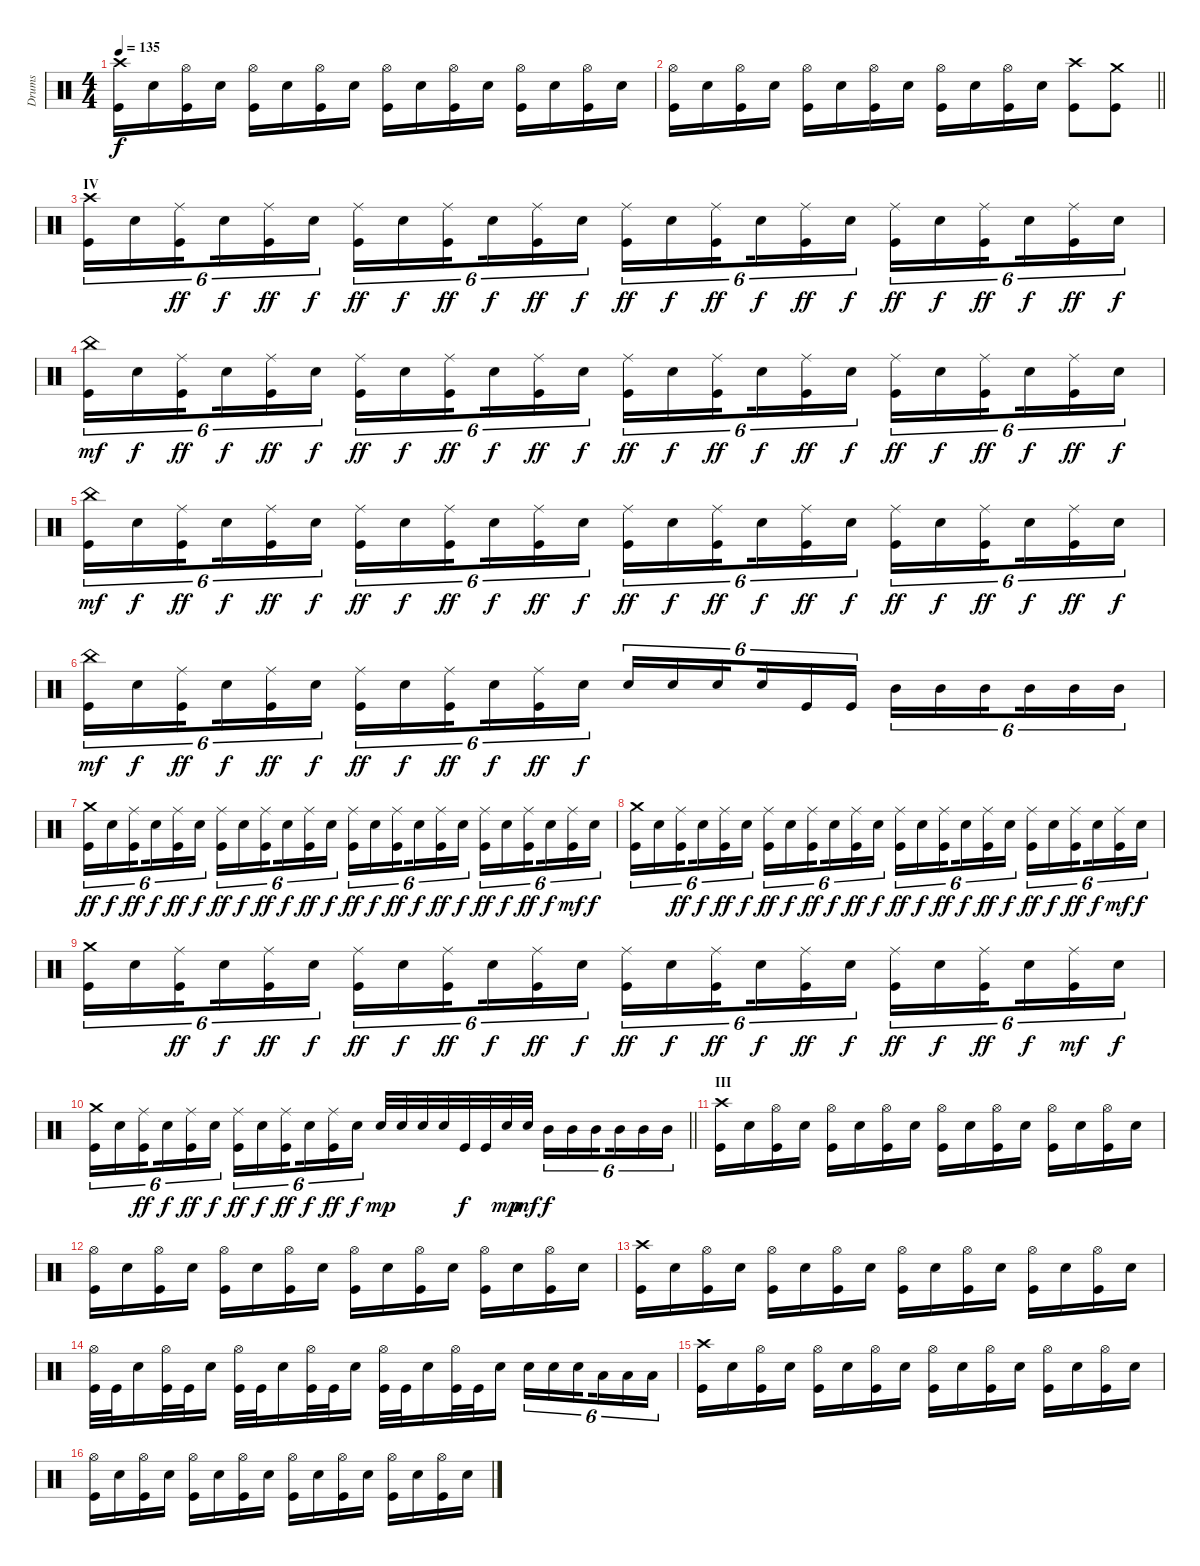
\track ("Drums" "Drums") {instrument percussion}
\staff {score}
\articulation defaults
\ts (4 4)
\tempo 135
\clef neutral
\ks c
("Kick (hit)" "Crash high (hit)").16{dy f} "Electric Snare (hit)".16 ("Kick (hit)" "Hi-Hat (open)").16 "Electric Snare (hit)".16 ("Kick (hit)" "Hi-Hat (open)").16 "Electric Snare (hit)".16 ("Kick (hit)" "Hi-Hat (open)").16 "Electric Snare (hit)".16 ("Kick (hit)" "Hi-Hat (open)").16 "Electric Snare (hit)".16 ("Kick (hit)" "Hi-Hat (open)").16 "Electric Snare (hit)".16 ("Kick (hit)" "Hi-Hat (open)").16 "Electric Snare (hit)".16 ("Kick (hit)" "Hi-Hat (open)").16 "Electric Snare (hit)".16 |
\barLineRight lightlight
("Kick (hit)" "Hi-Hat (open)").16 "Electric Snare (hit)".16 ("Kick (hit)" "Hi-Hat (open)").16 "Electric Snare (hit)".16 ("Kick (hit)" "Hi-Hat (open)").16 "Electric Snare (hit)".16 ("Kick (hit)" "Hi-Hat (open)").16 "Electric Snare (hit)".16 ("Kick (hit)" "Hi-Hat (open)").16 "Electric Snare (hit)".16 ("Kick (hit)" "Hi-Hat (open)").16 "Electric Snare (hit)".16 ("Kick (hit)" "Crash high (hit)").8 ("Kick (hit)" "Crash medium (hit)").8 |
\section ("" "IV")
("Kick (hit)" "Crash high (hit)").16{tu (6 4)} "Electric Snare (hit)".16{tu (6 4)} ("Kick (hit)" "Ride (middle)").16{tu (6 4) dy ff beam splitsecondary} "Electric Snare (hit)".16{tu (6 4) dy f} ("Kick (hit)" "Ride (middle)").16{tu (6 4) dy ff} "Electric Snare (hit)".16{tu (6 4) dy f} ("Kick (hit)" "Ride (middle)").16{tu (6 4) dy ff} "Electric Snare (hit)".16{tu (6 4) dy f} ("Kick (hit)" "Ride (middle)").16{tu (6 4) dy ff beam splitsecondary} "Electric Snare (hit)".16{tu (6 4) dy f} ("Kick (hit)" "Ride (middle)").16{tu (6 4) dy ff} "Electric Snare (hit)".16{tu (6 4) dy f} ("Kick (hit)" "Ride (middle)").16{tu (6 4) dy ff} "Electric Snare (hit)".16{tu (6 4) dy f} ("Kick (hit)" "Ride (middle)").16{tu (6 4) dy ff beam splitsecondary} "Electric Snare (hit)".16{tu (6 4) dy f} ("Kick (hit)" "Ride (middle)").16{tu (6 4) dy ff} "Electric Snare (hit)".16{tu (6 4) dy f} ("Kick (hit)" "Ride (middle)").16{tu (6 4) dy ff} "Electric Snare (hit)".16{tu (6 4) dy f} ("Kick (hit)" "Ride (middle)").16{tu (6 4) dy ff beam splitsecondary} "Electric Snare (hit)".16{tu (6 4) dy f} ("Kick (hit)" "Ride (middle)").16{tu (6 4) dy ff} "Electric Snare (hit)".16{tu (6 4) dy f} |
("Kick (hit)" "China (hit)").16{tu (6 4) dy mf} "Electric Snare (hit)".16{tu (6 4) dy f} ("Kick (hit)" "Ride (middle)").16{tu (6 4) dy ff beam splitsecondary} "Electric Snare (hit)".16{tu (6 4) dy f} ("Kick (hit)" "Ride (middle)").16{tu (6 4) dy ff} "Electric Snare (hit)".16{tu (6 4) dy f} ("Kick (hit)" "Ride (middle)").16{tu (6 4) dy ff} "Electric Snare (hit)".16{tu (6 4) dy f} ("Kick (hit)" "Ride (middle)").16{tu (6 4) dy ff beam splitsecondary} "Electric Snare (hit)".16{tu (6 4) dy f} ("Kick (hit)" "Ride (middle)").16{tu (6 4) dy ff} "Electric Snare (hit)".16{tu (6 4) dy f} ("Kick (hit)" "Ride (middle)").16{tu (6 4) dy ff} "Electric Snare (hit)".16{tu (6 4) dy f} ("Kick (hit)" "Ride (middle)").16{tu (6 4) dy ff beam splitsecondary} "Electric Snare (hit)".16{tu (6 4) dy f} ("Kick (hit)" "Ride (middle)").16{tu (6 4) dy ff} "Electric Snare (hit)".16{tu (6 4) dy f} ("Kick (hit)" "Ride (middle)").16{tu (6 4) dy ff} "Electric Snare (hit)".16{tu (6 4) dy f} ("Kick (hit)" "Ride (middle)").16{tu (6 4) dy ff beam splitsecondary} "Electric Snare (hit)".16{tu (6 4) dy f} ("Kick (hit)" "Ride (middle)").16{tu (6 4) dy ff} "Electric Snare (hit)".16{tu (6 4) dy f} |
("Kick (hit)" "China (hit)").16{tu (6 4) dy mf} "Electric Snare (hit)".16{tu (6 4) dy f} ("Kick (hit)" "Ride (middle)").16{tu (6 4) dy ff beam splitsecondary} "Electric Snare (hit)".16{tu (6 4) dy f} ("Kick (hit)" "Ride (middle)").16{tu (6 4) dy ff} "Electric Snare (hit)".16{tu (6 4) dy f} ("Kick (hit)" "Ride (middle)").16{tu (6 4) dy ff} "Electric Snare (hit)".16{tu (6 4) dy f} ("Kick (hit)" "Ride (middle)").16{tu (6 4) dy ff beam splitsecondary} "Electric Snare (hit)".16{tu (6 4) dy f} ("Kick (hit)" "Ride (middle)").16{tu (6 4) dy ff} "Electric Snare (hit)".16{tu (6 4) dy f} ("Kick (hit)" "Ride (middle)").16{tu (6 4) dy ff} "Electric Snare (hit)".16{tu (6 4) dy f} ("Kick (hit)" "Ride (middle)").16{tu (6 4) dy ff beam splitsecondary} "Electric Snare (hit)".16{tu (6 4) dy f} ("Kick (hit)" "Ride (middle)").16{tu (6 4) dy ff} "Electric Snare (hit)".16{tu (6 4) dy f} ("Kick (hit)" "Ride (middle)").16{tu (6 4) dy ff} "Electric Snare (hit)".16{tu (6 4) dy f} ("Kick (hit)" "Ride (middle)").16{tu (6 4) dy ff beam splitsecondary} "Electric Snare (hit)".16{tu (6 4) dy f} ("Kick (hit)" "Ride (middle)").16{tu (6 4) dy ff} "Electric Snare (hit)".16{tu (6 4) dy f} |
("Kick (hit)" "China (hit)").16{tu (6 4) dy mf} "Electric Snare (hit)".16{tu (6 4) dy f} ("Kick (hit)" "Ride (middle)").16{tu (6 4) dy ff beam splitsecondary} "Electric Snare (hit)".16{tu (6 4) dy f} ("Kick (hit)" "Ride (middle)").16{tu (6 4) dy ff} "Electric Snare (hit)".16{tu (6 4) dy f} ("Kick (hit)" "Ride (middle)").16{tu (6 4) dy ff} "Electric Snare (hit)".16{tu (6 4) dy f} ("Kick (hit)" "Ride (middle)").16{tu (6 4) dy ff beam splitsecondary} "Electric Snare (hit)".16{tu (6 4) dy f} ("Kick (hit)" "Ride (middle)").16{tu (6 4) dy ff} "Electric Snare (hit)".16{tu (6 4) dy f} "Electric Snare (hit)".16{tu (6 4)} "Electric Snare (hit)".16{tu (6 4)} "Electric Snare (hit)".16{tu (6 4) beam splitsecondary} "Electric Snare (hit)".16{tu (6 4)} "Kick (hit)".16{tu (6 4)} "Kick (hit)".16{tu (6 4)} "Mid Tom (hit)".16{tu (6 4)} "Mid Tom (hit)".16{tu (6 4)} "Mid Tom (hit)".16{tu (6 4) beam splitsecondary} "Mid Tom (hit)".16{tu (6 4)} "Mid Tom (hit)".16{tu (6 4)} "Mid Tom (hit)".16{tu (6 4)} |
("Kick (hit)" "Crash medium (hit)").16{tu (6 4) dy ff} "Electric Snare (hit)".16{tu (6 4) dy f} ("Kick (hit)" "Ride (middle)").16{tu (6 4) dy ff beam splitsecondary} "Electric Snare (hit)".16{tu (6 4) dy f} ("Kick (hit)" "Ride (middle)").16{tu (6 4) dy ff} "Electric Snare (hit)".16{tu (6 4) dy f} ("Kick (hit)" "Ride (middle)").16{tu (6 4) dy ff} "Electric Snare (hit)".16{tu (6 4) dy f} ("Kick (hit)" "Ride (middle)").16{tu (6 4) dy ff beam splitsecondary} "Electric Snare (hit)".16{tu (6 4) dy f} ("Kick (hit)" "Ride (middle)").16{tu (6 4) dy ff} "Electric Snare (hit)".16{tu (6 4) dy f} ("Kick (hit)" "Ride (middle)").16{tu (6 4) dy ff} "Electric Snare (hit)".16{tu (6 4) dy f} ("Kick (hit)" "Ride (middle)").16{tu (6 4) dy ff beam splitsecondary} "Electric Snare (hit)".16{tu (6 4) dy f} ("Kick (hit)" "Ride (middle)").16{tu (6 4) dy ff} "Electric Snare (hit)".16{tu (6 4) dy f} ("Kick (hit)" "Ride (middle)").16{tu (6 4) dy ff} "Electric Snare (hit)".16{tu (6 4) dy f} ("Kick (hit)" "Ride (middle)").16{tu (6 4) dy ff beam splitsecondary} "Electric Snare (hit)".16{tu (6 4) dy f} ("Kick (hit)" "Ride (middle)").16{tu (6 4) dy mf} "Electric Snare (hit)".16{tu (6 4) dy f} |
("Kick (hit)" "Crash medium (hit)").16{tu (6 4)} "Electric Snare (hit)".16{tu (6 4)} ("Kick (hit)" "Ride (middle)").16{tu (6 4) dy ff beam splitsecondary} "Electric Snare (hit)".16{tu (6 4) dy f} ("Kick (hit)" "Ride (middle)").16{tu (6 4) dy ff} "Electric Snare (hit)".16{tu (6 4) dy f} ("Kick (hit)" "Ride (middle)").16{tu (6 4) dy ff} "Electric Snare (hit)".16{tu (6 4) dy f} ("Kick (hit)" "Ride (middle)").16{tu (6 4) dy ff beam splitsecondary} "Electric Snare (hit)".16{tu (6 4) dy f} ("Kick (hit)" "Ride (middle)").16{tu (6 4) dy ff} "Electric Snare (hit)".16{tu (6 4) dy f} ("Kick (hit)" "Ride (middle)").16{tu (6 4) dy ff} "Electric Snare (hit)".16{tu (6 4) dy f} ("Kick (hit)" "Ride (middle)").16{tu (6 4) dy ff beam splitsecondary} "Electric Snare (hit)".16{tu (6 4) dy f} ("Kick (hit)" "Ride (middle)").16{tu (6 4) dy ff} "Electric Snare (hit)".16{tu (6 4) dy f} ("Kick (hit)" "Ride (middle)").16{tu (6 4) dy ff} "Electric Snare (hit)".16{tu (6 4) dy f} ("Kick (hit)" "Ride (middle)").16{tu (6 4) dy ff beam splitsecondary} "Electric Snare (hit)".16{tu (6 4) dy f} ("Kick (hit)" "Ride (middle)").16{tu (6 4) dy mf} "Electric Snare (hit)".16{tu (6 4) dy f} |
("Kick (hit)" "Crash medium (hit)").16{tu (6 4)} "Electric Snare (hit)".16{tu (6 4)} ("Kick (hit)" "Ride (middle)").16{tu (6 4) dy ff beam splitsecondary} "Electric Snare (hit)".16{tu (6 4) dy f} ("Kick (hit)" "Ride (middle)").16{tu (6 4) dy ff} "Electric Snare (hit)".16{tu (6 4) dy f} ("Kick (hit)" "Ride (middle)").16{tu (6 4) dy ff} "Electric Snare (hit)".16{tu (6 4) dy f} ("Kick (hit)" "Ride (middle)").16{tu (6 4) dy ff beam splitsecondary} "Electric Snare (hit)".16{tu (6 4) dy f} ("Kick (hit)" "Ride (middle)").16{tu (6 4) dy ff} "Electric Snare (hit)".16{tu (6 4) dy f} ("Kick (hit)" "Ride (middle)").16{tu (6 4) dy ff} "Electric Snare (hit)".16{tu (6 4) dy f} ("Kick (hit)" "Ride (middle)").16{tu (6 4) dy ff beam splitsecondary} "Electric Snare (hit)".16{tu (6 4) dy f} ("Kick (hit)" "Ride (middle)").16{tu (6 4) dy ff} "Electric Snare (hit)".16{tu (6 4) dy f} ("Kick (hit)" "Ride (middle)").16{tu (6 4) dy ff} "Electric Snare (hit)".16{tu (6 4) dy f} ("Kick (hit)" "Ride (middle)").16{tu (6 4) dy ff beam splitsecondary} "Electric Snare (hit)".16{tu (6 4) dy f} ("Kick (hit)" "Ride (middle)").16{tu (6 4) dy mf} "Electric Snare (hit)".16{tu (6 4) dy f} |
\barLineRight lightlight
("Kick (hit)" "Crash medium (hit)").16{tu (6 4)} "Electric Snare (hit)".16{tu (6 4)} ("Kick (hit)" "Ride (middle)").16{tu (6 4) dy ff beam splitsecondary} "Electric Snare (hit)".16{tu (6 4) dy f} ("Kick (hit)" "Ride (middle)").16{tu (6 4) dy ff} "Electric Snare (hit)".16{tu (6 4) dy f} ("Kick (hit)" "Ride (middle)").16{tu (6 4) dy ff} "Electric Snare (hit)".16{tu (6 4) dy f} ("Kick (hit)" "Ride (middle)").16{tu (6 4) dy ff beam splitsecondary} "Electric Snare (hit)".16{tu (6 4) dy f} ("Kick (hit)" "Ride (middle)").16{tu (6 4) dy ff} "Electric Snare (hit)".16{tu (6 4) dy f} "Electric Snare (hit)".32{dy mp} "Electric Snare (hit)".32 "Electric Snare (hit)".32 "Electric Snare (hit)".32 "Kick (hit)".32{dy f} "Kick (hit)".32 "Electric Snare (hit)".32{dy mp} "Electric Snare (hit)".32{dy mf} "Mid Tom (hit)".16{tu (6 4) dy f} "Mid Tom (hit)".16{tu (6 4)} "Mid Tom (hit)".16{tu (6 4) beam splitsecondary} "Mid Tom (hit)".16{tu (6 4)} "Mid Tom (hit)".16{tu (6 4)} "Mid Tom (hit)".16{tu (6 4)} |
\section ("" "III")
("Kick (hit)" "Crash high (hit)").16 "Electric Snare (hit)".16 ("Kick (hit)" "Hi-Hat (open)").16 "Electric Snare (hit)".16 ("Kick (hit)" "Hi-Hat (open)").16 "Electric Snare (hit)".16 ("Kick (hit)" "Hi-Hat (open)").16 "Electric Snare (hit)".16 ("Kick (hit)" "Hi-Hat (open)").16 "Electric Snare (hit)".16 ("Kick (hit)" "Hi-Hat (open)").16 "Electric Snare (hit)".16 ("Kick (hit)" "Hi-Hat (open)").16 "Electric Snare (hit)".16 ("Kick (hit)" "Hi-Hat (open)").16 "Electric Snare (hit)".16 |
("Kick (hit)" "Hi-Hat (open)").16 "Electric Snare (hit)".16 ("Kick (hit)" "Hi-Hat (open)").16 "Electric Snare (hit)".16 ("Kick (hit)" "Hi-Hat (open)").16 "Electric Snare (hit)".16 ("Kick (hit)" "Hi-Hat (open)").16 "Electric Snare (hit)".16 ("Kick (hit)" "Hi-Hat (open)").16 "Electric Snare (hit)".16 ("Kick (hit)" "Hi-Hat (open)").16 "Electric Snare (hit)".16 ("Kick (hit)" "Hi-Hat (open)").16 "Electric Snare (hit)".16 ("Kick (hit)" "Hi-Hat (open)").16 "Electric Snare (hit)".16 |
("Kick (hit)" "Crash high (hit)").16 "Electric Snare (hit)".16 ("Kick (hit)" "Hi-Hat (open)").16 "Electric Snare (hit)".16 ("Kick (hit)" "Hi-Hat (open)").16 "Electric Snare (hit)".16 ("Kick (hit)" "Hi-Hat (open)").16 "Electric Snare (hit)".16 ("Kick (hit)" "Hi-Hat (open)").16 "Electric Snare (hit)".16 ("Kick (hit)" "Hi-Hat (open)").16 "Electric Snare (hit)".16 ("Kick (hit)" "Hi-Hat (open)").16 "Electric Snare (hit)".16 ("Kick (hit)" "Hi-Hat (open)").16 "Electric Snare (hit)".16 |
("Kick (hit)" "Hi-Hat (open)").32 "Kick (hit)".32 "Electric Snare (hit)".16 ("Kick (hit)" "Hi-Hat (open)").32 "Kick (hit)".32 "Electric Snare (hit)".16 ("Kick (hit)" "Hi-Hat (open)").32 "Kick (hit)".32 "Electric Snare (hit)".16 ("Kick (hit)" "Hi-Hat (open)").32 "Kick (hit)".32 "Electric Snare (hit)".16 ("Kick (hit)" "Hi-Hat (open)").32 "Kick (hit)".32 "Electric Snare (hit)".16 ("Kick (hit)" "Hi-Hat (open)").32 "Kick (hit)".32 "Electric Snare (hit)".16 "Electric Snare (hit)".16{tu (6 4)} "Electric Snare (hit)".16{tu (6 4)} "Electric Snare (hit)".16{tu (6 4) beam splitsecondary} "Low Tom (hit)".16{tu (6 4)} "Low Tom (hit)".16{tu (6 4)} "Low Tom (hit)".16{tu (6 4)} |
("Kick (hit)" "Crash high (hit)").16 "Electric Snare (hit)".16 ("Kick (hit)" "Hi-Hat (open)").16 "Electric Snare (hit)".16 ("Kick (hit)" "Hi-Hat (open)").16 "Electric Snare (hit)".16 ("Kick (hit)" "Hi-Hat (open)").16 "Electric Snare (hit)".16 ("Kick (hit)" "Hi-Hat (open)").16 "Electric Snare (hit)".16 ("Kick (hit)" "Hi-Hat (open)").16 "Electric Snare (hit)".16 ("Kick (hit)" "Hi-Hat (open)").16 "Electric Snare (hit)".16 ("Kick (hit)" "Hi-Hat (open)").16 "Electric Snare (hit)".16 |
("Kick (hit)" "Hi-Hat (open)").16 "Electric Snare (hit)".16 ("Kick (hit)" "Hi-Hat (open)").16 "Electric Snare (hit)".16 ("Kick (hit)" "Hi-Hat (open)").16 "Electric Snare (hit)".16 ("Kick (hit)" "Hi-Hat (open)").16 "Electric Snare (hit)".16 ("Kick (hit)" "Hi-Hat (open)").16 "Electric Snare (hit)".16 ("Kick (hit)" "Hi-Hat (open)").16 "Electric Snare (hit)".16 ("Kick (hit)" "Hi-Hat (open)").16 "Electric Snare (hit)".16 ("Kick (hit)" "Hi-Hat (open)").16 "Electric Snare (hit)".16
